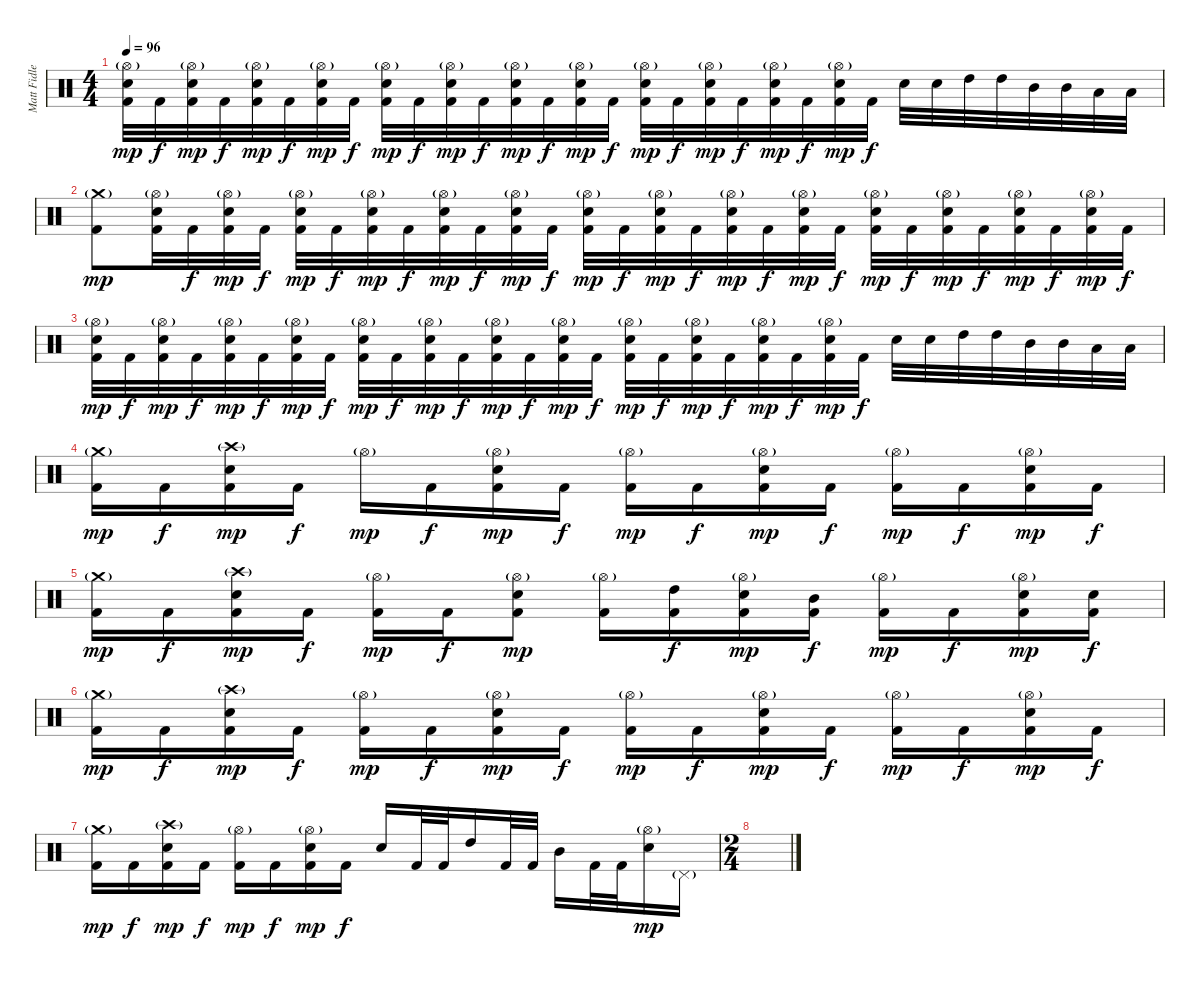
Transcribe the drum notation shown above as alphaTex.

\track ("Matt Fidler---Drums" "Matt Fidle") {instrument percussion}
\staff {score}
\articulation defaults
\ts (4 4)
\tempo 96
\clef neutral
\ks c
("Hi-Hat (open)"{g} "Electric Snare (hit)" "Kick (hit) 2").32{dy mp} "Kick (hit) 2".32{dy f} ("Hi-Hat (open)"{g} "Electric Snare (hit)" "Kick (hit) 2").32{dy mp} "Kick (hit) 2".32{dy f} ("Hi-Hat (open)"{g} "Electric Snare (hit)" "Kick (hit) 2").32{dy mp} "Kick (hit) 2".32{dy f} ("Hi-Hat (open)"{g} "Electric Snare (hit)" "Kick (hit) 2").32{dy mp} "Kick (hit) 2".32{dy f} ("Hi-Hat (open)"{g} "Electric Snare (hit)" "Kick (hit) 2").32{dy mp} "Kick (hit) 2".32{dy f} ("Hi-Hat (open)"{g} "Electric Snare (hit)" "Kick (hit) 2").32{dy mp} "Kick (hit) 2".32{dy f} ("Hi-Hat (open)"{g} "Electric Snare (hit)" "Kick (hit) 2").32{dy mp} "Kick (hit) 2".32{dy f} ("Hi-Hat (open)"{g} "Electric Snare (hit)" "Kick (hit) 2").32{dy mp} "Kick (hit) 2".32{dy f} ("Hi-Hat (open)"{g} "Electric Snare (hit)" "Kick (hit) 2").32{dy mp} "Kick (hit) 2".32{dy f} ("Hi-Hat (open)"{g} "Electric Snare (hit)" "Kick (hit) 2").32{dy mp} "Kick (hit) 2".32{dy f} ("Hi-Hat (open)"{g} "Electric Snare (hit)" "Kick (hit) 2").32{dy mp} "Kick (hit) 2".32{dy f} ("Hi-Hat (open)"{g} "Electric Snare (hit)" "Kick (hit) 2").32{dy mp} "Kick (hit) 2".32{dy f} "Electric Snare (hit)".32 "Electric Snare (hit)".32 "High Tom (hit)".32 "High Tom (hit)".32 "Mid Tom (hit)".32 "Mid Tom (hit)".32 "Low Tom (hit)".32 "Low Tom (hit)".32 |
("Crash medium (hit)"{g} "Kick (hit) 2").8{dy mp} ("Hi-Hat (open)"{g} "Electric Snare (hit)" "Kick (hit) 2").32 "Kick (hit) 2".32{dy f} ("Hi-Hat (open)"{g} "Electric Snare (hit)" "Kick (hit) 2").32{dy mp} "Kick (hit) 2".32{dy f} ("Hi-Hat (open)"{g} "Electric Snare (hit)" "Kick (hit) 2").32{dy mp} "Kick (hit) 2".32{dy f} ("Hi-Hat (open)"{g} "Electric Snare (hit)" "Kick (hit) 2").32{dy mp} "Kick (hit) 2".32{dy f} ("Hi-Hat (open)"{g} "Electric Snare (hit)" "Kick (hit) 2").32{dy mp} "Kick (hit) 2".32{dy f} ("Hi-Hat (open)"{g} "Electric Snare (hit)" "Kick (hit) 2").32{dy mp} "Kick (hit) 2".32{dy f} ("Hi-Hat (open)"{g} "Electric Snare (hit)" "Kick (hit) 2").32{dy mp} "Kick (hit) 2".32{dy f} ("Hi-Hat (open)"{g} "Electric Snare (hit)" "Kick (hit) 2").32{dy mp} "Kick (hit) 2".32{dy f} ("Hi-Hat (open)"{g} "Electric Snare (hit)" "Kick (hit) 2").32{dy mp} "Kick (hit) 2".32{dy f} ("Hi-Hat (open)"{g} "Electric Snare (hit)" "Kick (hit) 2").32{dy mp} "Kick (hit) 2".32{dy f} ("Hi-Hat (open)"{g} "Electric Snare (hit)" "Kick (hit) 2").32{dy mp} "Kick (hit) 2".32{dy f} ("Hi-Hat (open)"{g} "Electric Snare (hit)" "Kick (hit) 2").32{dy mp} "Kick (hit) 2".32{dy f} ("Hi-Hat (open)"{g} "Electric Snare (hit)" "Kick (hit) 2").32{dy mp} "Kick (hit) 2".32{dy f} ("Hi-Hat (open)"{g} "Electric Snare (hit)" "Kick (hit) 2").32{dy mp} "Kick (hit) 2".32{dy f} |
("Hi-Hat (open)"{g} "Electric Snare (hit)" "Kick (hit) 2").32{dy mp} "Kick (hit) 2".32{dy f} ("Hi-Hat (open)"{g} "Electric Snare (hit)" "Kick (hit) 2").32{dy mp} "Kick (hit) 2".32{dy f} ("Hi-Hat (open)"{g} "Electric Snare (hit)" "Kick (hit) 2").32{dy mp} "Kick (hit) 2".32{dy f} ("Hi-Hat (open)"{g} "Electric Snare (hit)" "Kick (hit) 2").32{dy mp} "Kick (hit) 2".32{dy f} ("Hi-Hat (open)"{g} "Electric Snare (hit)" "Kick (hit) 2").32{dy mp} "Kick (hit) 2".32{dy f} ("Hi-Hat (open)"{g} "Electric Snare (hit)" "Kick (hit) 2").32{dy mp} "Kick (hit) 2".32{dy f} ("Hi-Hat (open)"{g} "Electric Snare (hit)" "Kick (hit) 2").32{dy mp} "Kick (hit) 2".32{dy f} ("Hi-Hat (open)"{g} "Electric Snare (hit)" "Kick (hit) 2").32{dy mp} "Kick (hit) 2".32{dy f} ("Hi-Hat (open)"{g} "Electric Snare (hit)" "Kick (hit) 2").32{dy mp} "Kick (hit) 2".32{dy f} ("Hi-Hat (open)"{g} "Electric Snare (hit)" "Kick (hit) 2").32{dy mp} "Kick (hit) 2".32{dy f} ("Hi-Hat (open)"{g} "Electric Snare (hit)" "Kick (hit) 2").32{dy mp} "Kick (hit) 2".32{dy f} ("Hi-Hat (open)"{g} "Electric Snare (hit)" "Kick (hit) 2").32{dy mp} "Kick (hit) 2".32{dy f} "Electric Snare (hit)".32 "Electric Snare (hit)".32 "High Tom (hit)".32 "High Tom (hit)".32 "Mid Tom (hit)".32 "Mid Tom (hit)".32 "Low Tom (hit)".32 "Low Tom (hit)".32 |
("Crash medium (hit)"{g} "Kick (hit) 2").16{dy mp} "Kick (hit) 2".16{dy f} ("Crash high (hit)"{g} "Electric Snare (hit)" "Kick (hit) 2").16{dy mp} "Kick (hit) 2".16{dy f} "Hi-Hat (open)"{g}.16{dy mp} "Kick (hit) 2".16{dy f} ("Hi-Hat (open)"{g} "Electric Snare (hit)" "Kick (hit) 2").16{dy mp} "Kick (hit) 2".16{dy f} ("Hi-Hat (open)"{g} "Kick (hit) 2").16{dy mp} "Kick (hit) 2".16{dy f} ("Hi-Hat (open)"{g} "Electric Snare (hit)" "Kick (hit) 2").16{dy mp} "Kick (hit) 2".16{dy f} ("Hi-Hat (open)"{g} "Kick (hit) 2").16{dy mp} "Kick (hit) 2".16{dy f} ("Hi-Hat (open)"{g} "Electric Snare (hit)" "Kick (hit) 2").16{dy mp} "Kick (hit) 2".16{dy f} |
("Crash medium (hit)"{g} "Kick (hit) 2").16{dy mp} "Kick (hit) 2".16{dy f} ("Crash high (hit)"{g} "Electric Snare (hit)" "Kick (hit) 2").16{dy mp} "Kick (hit) 2".16{dy f} ("Hi-Hat (open)"{g} "Kick (hit) 2").16{dy mp} "Kick (hit) 2".16{dy f} ("Hi-Hat (open)"{g} "Electric Snare (hit)" "Kick (hit) 2").8{dy mp} ("Hi-Hat (open)"{g} "Kick (hit) 2").16 ("High Tom (hit)" "Kick (hit) 2").16{dy f} ("Hi-Hat (open)"{g} "Electric Snare (hit)" "Kick (hit) 2").16{dy mp} ("Mid Tom (hit)" "Kick (hit) 2").16{dy f} ("Hi-Hat (open)"{g} "Kick (hit) 2").16{dy mp} "Kick (hit) 2".16{dy f} ("Hi-Hat (open)"{g} "Electric Snare (hit)" "Kick (hit) 2").16{dy mp} ("Electric Snare (hit)" "Kick (hit) 2").16{dy f} |
("Crash medium (hit)"{g} "Kick (hit) 2").16{dy mp} "Kick (hit) 2".16{dy f} ("Crash high (hit)"{g} "Electric Snare (hit)" "Kick (hit) 2").16{dy mp} "Kick (hit) 2".16{dy f} ("Hi-Hat (open)"{g} "Kick (hit) 2").16{dy mp} "Kick (hit) 2".16{dy f} ("Hi-Hat (open)"{g} "Electric Snare (hit)" "Kick (hit) 2").16{dy mp} "Kick (hit) 2".16{dy f} ("Hi-Hat (open)"{g} "Kick (hit) 2").16{dy mp} "Kick (hit) 2".16{dy f} ("Hi-Hat (open)"{g} "Electric Snare (hit)" "Kick (hit) 2").16{dy mp} "Kick (hit) 2".16{dy f} ("Hi-Hat (open)"{g} "Kick (hit) 2").16{dy mp} "Kick (hit) 2".16{dy f} ("Hi-Hat (open)"{g} "Electric Snare (hit)" "Kick (hit) 2").16{dy mp} "Kick (hit) 2".16{dy f} |
("Crash medium (hit)"{g} "Kick (hit) 2").16{dy mp} "Kick (hit) 2".16{dy f} ("Crash high (hit)"{g} "Electric Snare (hit)" "Kick (hit) 2").16{dy mp} "Kick (hit) 2".16{dy f} ("Hi-Hat (open)"{g} "Kick (hit) 2").16{dy mp} "Kick (hit) 2".16{dy f} ("Hi-Hat (open)"{g} "Electric Snare (hit)" "Kick (hit) 2").16{dy mp} "Kick (hit) 2".16{dy f} "Electric Snare (hit)".16 "Kick (hit) 2".32 "Kick (hit) 2".32 "High Tom (hit)".16 "Kick (hit) 2".32 "Kick (hit) 2".32 "Mid Tom (hit)".16 "Kick (hit) 2".32 "Kick (hit) 2".32 ("Hi-Hat (open)"{g} "Electric Snare (hit)").16{dy mp} "Pedal Hi-Hat (hit)"{g}.16{volume 4} |
\ts (2 4)
